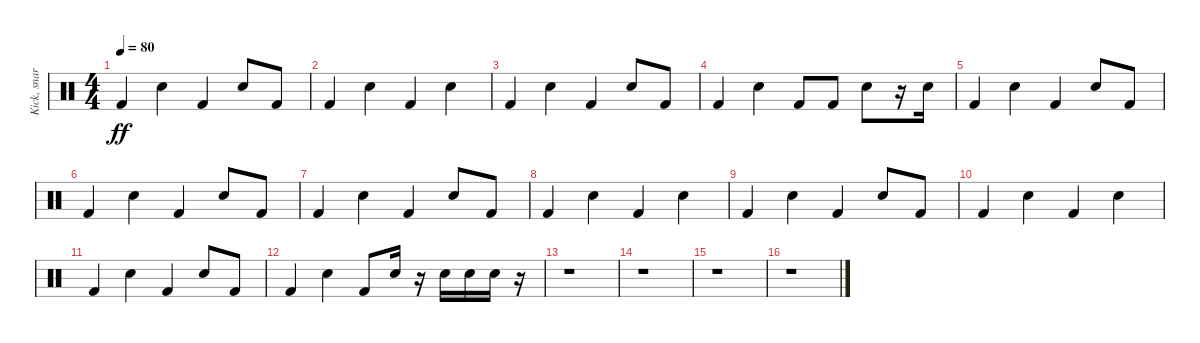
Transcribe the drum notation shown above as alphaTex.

\track ("Kick, snare" "Kick, snar") {instrument percussion}
\staff {score}
\articulation defaults
\ts (4 4)
\tempo 80
\clef neutral
\ks c "Kick (hit) 2".4{dy ff} "Snare (hit) 2".4 "Kick (hit) 2".4 "Snare (hit) 2".8 "Kick (hit) 2".8
|
"Kick (hit) 2".4 "Snare (hit) 2".4 "Kick (hit) 2".4 "Snare (hit) 2".4 |
"Kick (hit) 2".4 "Snare (hit) 2".4 "Kick (hit) 2".4 "Snare (hit) 2".8 "Kick (hit) 2".8 |
"Kick (hit) 2".4 "Snare (hit) 2".4 "Kick (hit) 2".8 "Kick (hit) 2".8 "Snare (hit) 2".8 r.16 "Snare (hit) 2".16 |
"Kick (hit) 2".4 "Snare (hit) 2".4 "Kick (hit) 2".4 "Snare (hit) 2".8 "Kick (hit) 2".8 |
"Kick (hit) 2".4 "Snare (hit) 2".4 "Kick (hit) 2".4 "Snare (hit) 2".8 "Kick (hit) 2".8 |
"Kick (hit) 2".4 "Snare (hit) 2".4 "Kick (hit) 2".4 "Snare (hit) 2".8 "Kick (hit) 2".8 |
"Kick (hit) 2".4 "Snare (hit) 2".4 "Kick (hit) 2".4 "Snare (hit) 2".4 |
"Kick (hit) 2".4 "Snare (hit) 2".4 "Kick (hit) 2".4 "Snare (hit) 2".8 "Kick (hit) 2".8 |
"Kick (hit) 2".4 "Snare (hit) 2".4 "Kick (hit) 2".4 "Snare (hit) 2".4 |
"Kick (hit) 2".4 "Snare (hit) 2".4 "Kick (hit) 2".4 "Snare (hit) 2".8 "Kick (hit) 2".8 |
"Kick (hit) 2".4 "Snare (hit) 2".4 "Kick (hit) 2".8 "Snare (hit) 2".16 r.16 "Snare (hit) 2".16 "Snare (hit) 2".16 "Snare (hit) 2".16 r.16 |
r.1 |
r.1 |
r.1 |
r.1
